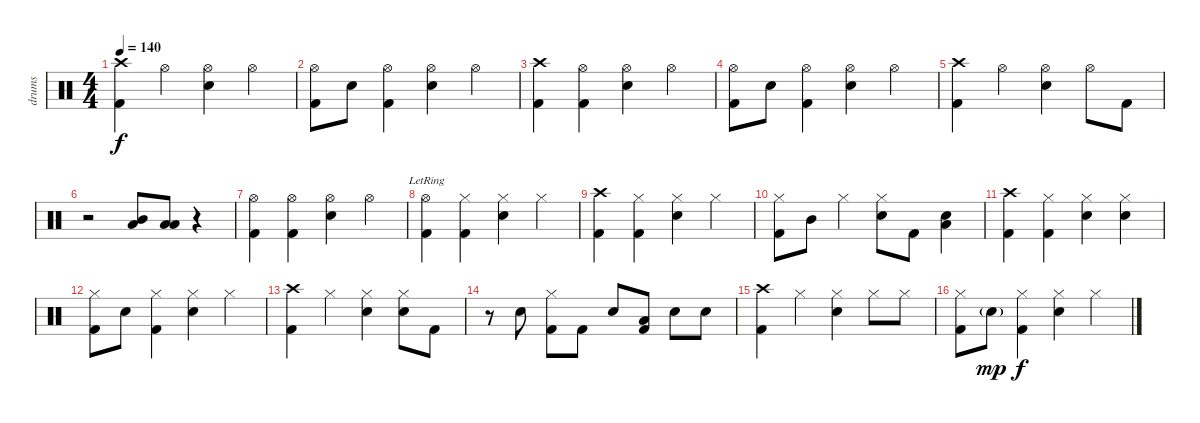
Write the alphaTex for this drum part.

\track ("drums" "drums") {instrument percussion}
\staff {score}
\articulation defaults
\ts (4 4)
\tempo 140
\clef neutral
\ks c
("Crash high (hit)" "Kick (hit) 2").4{dy f} "Hi-Hat (open)".4 ("Snare (hit) 2" "Hi-Hat (open)").4 "Hi-Hat (open)".4 |
("Kick (hit) 2" "Hi-Hat (open)").8 "Snare (hit) 2".8 ("Kick (hit) 2" "Hi-Hat (open)").4 ("Snare (hit) 2" "Hi-Hat (open)").4 "Hi-Hat (open)".4 |
("Crash high (hit)" "Kick (hit) 2").4 ("Kick (hit) 2" "Hi-Hat (open)").4 ("Snare (hit) 2" "Hi-Hat (open)").4 "Hi-Hat (open)".4 |
("Kick (hit) 2" "Hi-Hat (open)").8 "Snare (hit) 2".8 ("Kick (hit) 2" "Hi-Hat (open)").4 ("Snare (hit) 2" "Hi-Hat (open)").4 "Hi-Hat (open)".4 |
("Crash high (hit)" "Kick (hit) 2").4 "Hi-Hat (open)".4 ("Snare (hit) 2" "Hi-Hat (open)").4 "Hi-Hat (open)".8 "Kick (hit) 2".8 |
r.2 ("Low Floor Tom (hit)" "Mid Tom (hit)").8 ("Low Floor Tom (hit)" "Low Tom (hit)").8 r.4 |
("Kick (hit) 2" "Hi-Hat (open)").4{volume 14} ("Kick (hit) 2" "Hi-Hat (open)").4 ("Snare (hit) 2" "Hi-Hat (open)").4 "Hi-Hat (open)".4 |
("Kick (hit) 2" "Hi-Hat (open)"{lr}).4 ("Kick (hit) 2" "Hi-Hat (closed)").4 ("Snare (hit) 2" "Hi-Hat (closed)").4 "Hi-Hat (closed)".4 |
("Kick (hit) 2" "Crash high (hit)").4 ("Kick (hit) 2" "Hi-Hat (closed)").4 ("Snare (hit) 2" "Hi-Hat (closed)").4 "Hi-Hat (closed)".4 |
("Kick (hit) 2" "Hi-Hat (closed)").8 "Mid Tom (hit)".8 "Hi-Hat (closed)".4 ("Snare (hit) 2" "Hi-Hat (closed)").8 "Kick (hit) 2".8 ("Low Tom (hit)" "Snare (hit) 2").4 |
("Kick (hit) 2" "Crash high (hit)").4 ("Kick (hit) 2" "Hi-Hat (closed)").4 ("Snare (hit) 2" "Hi-Hat (closed)").4 ("Snare (hit) 2" "Hi-Hat (closed)").4 |
("Kick (hit) 2" "Hi-Hat (closed)").8 "Snare (hit) 2".8 ("Kick (hit) 2" "Hi-Hat (closed)").4 ("Snare (hit) 2" "Hi-Hat (closed)").4 "Hi-Hat (closed)".4 |
("Kick (hit) 2" "Crash high (hit)").4 "Hi-Hat (closed)".4 ("Snare (hit) 2" "Hi-Hat (closed)").4 ("Snare (hit) 2" "Hi-Hat (closed)").8 "Kick (hit) 2".8 |
r.8 "Snare (hit) 2".8 ("Kick (hit) 2" "Hi-Hat (closed)").8 "Kick (hit) 2".8 "Snare (hit) 2".8 ("Low Tom (hit)" "Kick (hit) 2").8 "Snare (hit) 2".8 "Snare (hit) 2".8 |
("Crash high (hit)" "Kick (hit) 2").4{volume 14} "Hi-Hat (closed)".4 ("Snare (hit) 2" "Hi-Hat (closed)").4 "Hi-Hat (closed)".8 "Hi-Hat (closed)".8 |
("Hi-Hat (closed)" "Kick (hit) 2").8 "Snare (hit) 2"{g}.8{dy mp} ("Kick (hit) 2" "Hi-Hat (closed)").4{dy f} ("Snare (hit) 2" "Hi-Hat (closed)").4 "Hi-Hat (closed)".4
